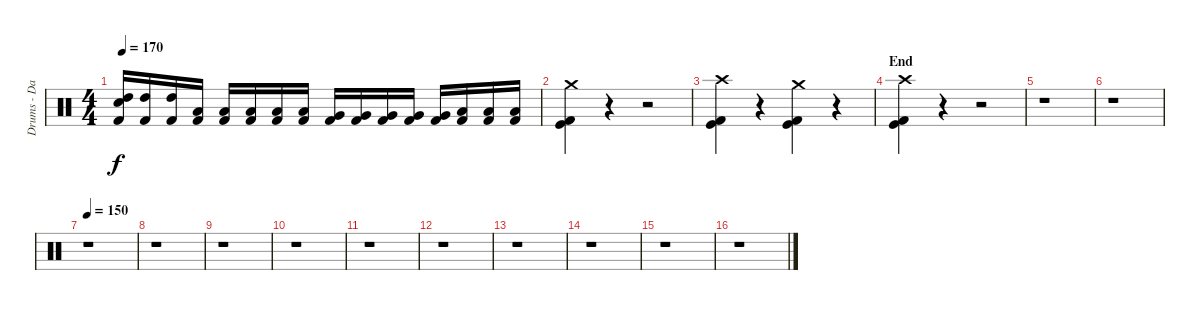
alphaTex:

\track ("Drums - Daniel Zimmermann" "Drums - Da") {instrument percussion}
\staff {score}
\articulation defaults
\ts (4 4)
\tempo 170
\clef neutral
\ks c
("Kick (hit) 2" "Electric Snare (hit)" "High Tom (hit)").16{dy f} ("Kick (hit) 2" "High Tom (hit)").16 ("Kick (hit) 2" "High Tom (hit)").16 ("Kick (hit) 2" "Low Tom (hit)").16 ("Kick (hit) 2" "Low Tom (hit)").16 ("Kick (hit) 2" "Low Tom (hit)").16 ("Kick (hit) 2" "Low Tom (hit)").16 ("Kick (hit) 2" "Low Tom (hit)").16 ("Kick (hit) 2" "Very Low Tom (hit)").16 ("Kick (hit) 2" "Very Low Tom (hit)").16 ("Kick (hit) 2" "Very Low Tom (hit)").16 ("Kick (hit) 2" "Very Low Tom (hit)").16 ("Kick (hit) 2" "Very Low Tom (hit)").16 ("Kick (hit) 2" "Low Floor Tom (hit)").16 ("Kick (hit) 2" "Low Floor Tom (hit)").16 ("Kick (hit) 2" "Low Floor Tom (hit)").16 |
("Kick (hit) 2" "Kick (hit)" "Crash medium (hit)").4 r.4 r.2 |
("Kick (hit) 2" "Kick (hit)" "Crash high (hit)").4 r.4 ("Kick (hit) 2" "Kick (hit)" "Crash medium (hit)").4 r.4 |
\section ("" "End")
("Kick (hit) 2" "Kick (hit)" "Crash high (hit)").4 r.4 r.2 |
r.1 |
r.1 |
\tempo 150
r.1 |
r.1 |
r.1 |
r.1 |
r.1 |
r.1 |
r.1 |
r.1 |
r.1 |
r.1
